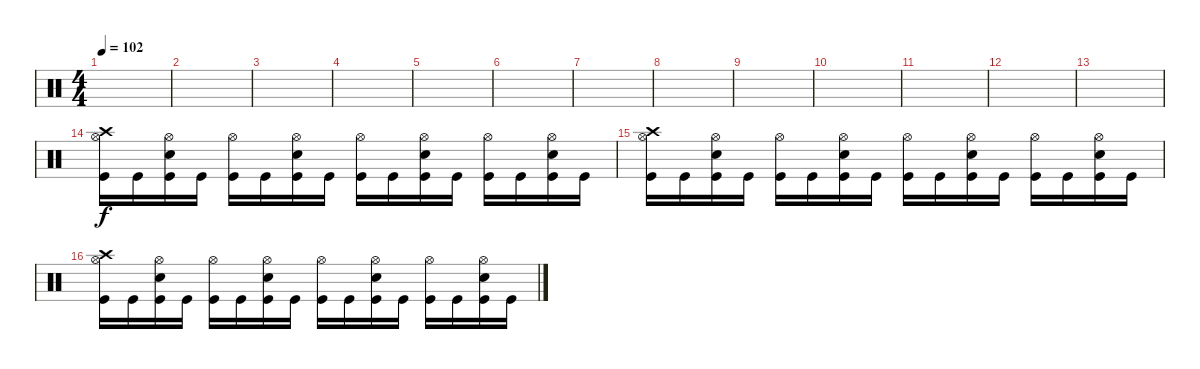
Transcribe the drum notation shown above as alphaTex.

\track "" {instrument percussion}
\staff {score}
\articulation defaults
\ts (4 4)
\tempo 102
\clef neutral
\ks c
|
|
|
|
|
|
|
|
|
|
|
|
|
("Crash high (hit)" "Kick (hit)" "Hi-Hat (open)").16 "Kick (hit)".16 ("Kick (hit)" "Electric Snare (hit)" "Hi-Hat (open)").16 "Kick (hit)".16 ("Kick (hit)" "Hi-Hat (open)").16 "Kick (hit)".16 ("Kick (hit)" "Electric Snare (hit)" "Hi-Hat (open)").16 "Kick (hit)".16 ("Hi-Hat (open)" "Kick (hit)").16 "Kick (hit)".16 ("Kick (hit)" "Hi-Hat (open)" "Electric Snare (hit)").16 "Kick (hit)".16 ("Hi-Hat (open)" "Kick (hit)").16 "Kick (hit)".16 ("Kick (hit)" "Hi-Hat (open)" "Electric Snare (hit)").16 "Kick (hit)".16 |
("Crash high (hit)" "Kick (hit)" "Hi-Hat (open)").16 "Kick (hit)".16 ("Kick (hit)" "Electric Snare (hit)" "Hi-Hat (open)").16 "Kick (hit)".16 ("Kick (hit)" "Hi-Hat (open)").16 "Kick (hit)".16 ("Kick (hit)" "Electric Snare (hit)" "Hi-Hat (open)").16 "Kick (hit)".16 ("Hi-Hat (open)" "Kick (hit)").16 "Kick (hit)".16 ("Kick (hit)" "Hi-Hat (open)" "Electric Snare (hit)").16 "Kick (hit)".16 ("Hi-Hat (open)" "Kick (hit)").16 "Kick (hit)".16 ("Kick (hit)" "Hi-Hat (open)" "Electric Snare (hit)").16 "Kick (hit)".16 |
("Crash high (hit)" "Kick (hit)" "Hi-Hat (open)").16 "Kick (hit)".16 ("Kick (hit)" "Electric Snare (hit)" "Hi-Hat (open)").16 "Kick (hit)".16 ("Kick (hit)" "Hi-Hat (open)").16 "Kick (hit)".16 ("Kick (hit)" "Electric Snare (hit)" "Hi-Hat (open)").16 "Kick (hit)".16 ("Hi-Hat (open)" "Kick (hit)").16 "Kick (hit)".16 ("Kick (hit)" "Hi-Hat (open)" "Electric Snare (hit)").16 "Kick (hit)".16 ("Hi-Hat (open)" "Kick (hit)").16 "Kick (hit)".16 ("Kick (hit)" "Hi-Hat (open)" "Electric Snare (hit)").16 "Kick (hit)".16
